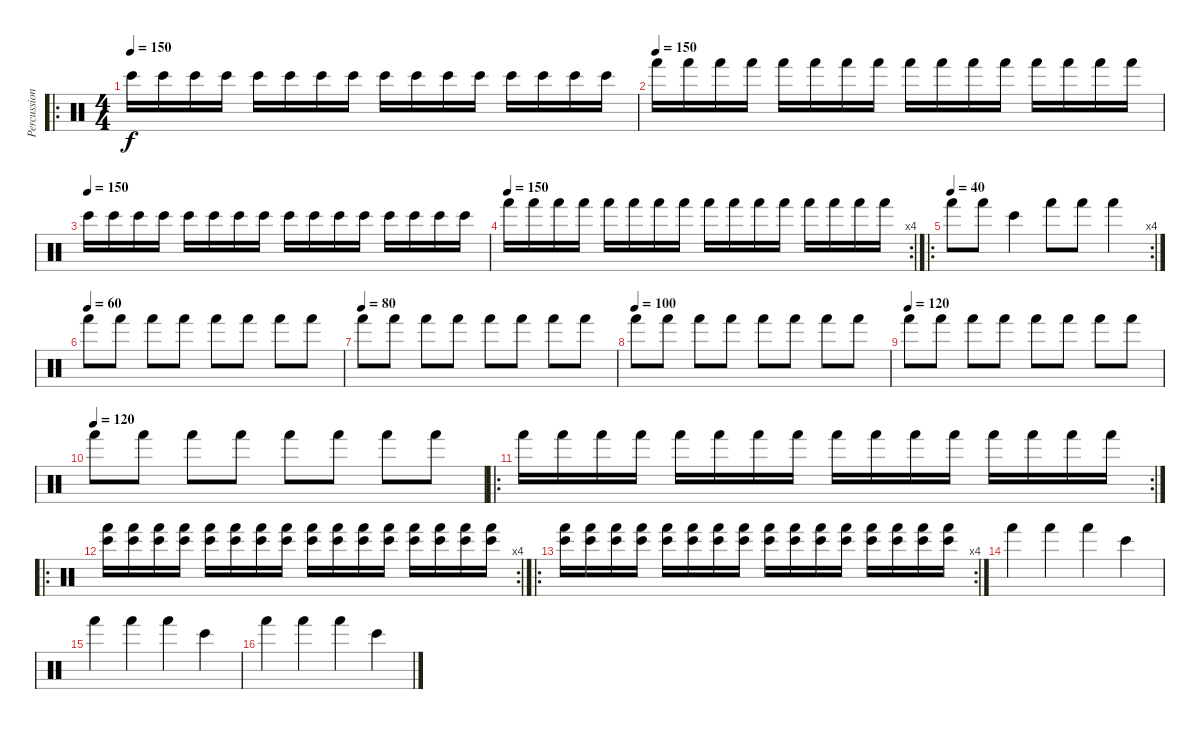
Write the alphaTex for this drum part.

\track ("Percussions" "Percussion") {instrument percussion}
\staff {score}
\articulation defaults
\ro
\ts (4 4)
\tempo 150
\clef neutral
\ks c "Bongo High (hit)".16{dy f} "Bongo High (hit)".16 "Bongo High (hit)".16 "Bongo High (hit)".16 "Bongo High (hit)".16 "Bongo High (hit)".16 "Bongo High (hit)".16 "Bongo High (hit)".16 "Bongo High (hit)".16 "Bongo High (hit)".16 "Bongo High (hit)".16 "Bongo High (hit)".16 "Bongo High (hit)".16 "Bongo High (hit)".16 "Bongo High (hit)".16 "Bongo High (hit)".16
|
\tempo (150)
"Hand (hit)".16 "Hand (hit)".16 "Hand (hit)".16 "Hand (hit)".16 "Hand (hit)".16 "Hand (hit)".16 "Hand (hit)".16 "Hand (hit)".16 "Hand (hit)".16 "Hand (hit)".16 "Hand (hit)".16 "Hand (hit)".16 "Hand (hit)".16 "Hand (hit)".16 "Hand (hit)".16 "Hand (hit)".16 |
\tempo (150)
"Bongo High (hit)".16 "Bongo High (hit)".16 "Bongo High (hit)".16 "Bongo High (hit)".16 "Bongo High (hit)".16 "Bongo High (hit)".16 "Bongo High (hit)".16 "Bongo High (hit)".16 "Bongo High (hit)".16 "Bongo High (hit)".16 "Bongo High (hit)".16 "Bongo High (hit)".16 "Bongo High (hit)".16 "Bongo High (hit)".16 "Bongo High (hit)".16 "Bongo High (hit)".16 |
\rc 4
\tempo (150)
"Hand (hit)".16 "Hand (hit)".16 "Hand (hit)".16 "Hand (hit)".16 "Hand (hit)".16 "Hand (hit)".16 "Hand (hit)".16 "Hand (hit)".16 "Hand (hit)".16 "Hand (hit)".16 "Hand (hit)".16 "Hand (hit)".16 "Hand (hit)".16 "Hand (hit)".16 "Hand (hit)".16 "Hand (hit)".16 |
\ro
\rc 4
\tempo (40)
"Hand (hit)".8 "Hand (hit)".8 "Bongo High (hit)".4 "Hand (hit)".8 "Hand (hit)".8 "Hand (hit)".4 |
\tempo (60)
"Hand (hit)".8 "Hand (hit)".8 "Hand (hit)".8 "Hand (hit)".8 "Hand (hit)".8 "Hand (hit)".8 "Hand (hit)".8 "Hand (hit)".8 |
\tempo (80)
"Hand (hit)".8 "Hand (hit)".8 "Hand (hit)".8 "Hand (hit)".8 "Hand (hit)".8 "Hand (hit)".8 "Hand (hit)".8 "Hand (hit)".8 |
\tempo (100)
"Hand (hit)".8 "Hand (hit)".8 "Hand (hit)".8 "Hand (hit)".8 "Hand (hit)".8 "Hand (hit)".8 "Hand (hit)".8 "Hand (hit)".8 |
\tempo (120)
"Hand (hit)".8 "Hand (hit)".8 "Hand (hit)".8 "Hand (hit)".8 "Hand (hit)".8 "Hand (hit)".8 "Hand (hit)".8 "Hand (hit)".8 |
\tempo (120)
"Hand (hit)".8 "Hand (hit)".8 "Hand (hit)".8 "Hand (hit)".8 "Hand (hit)".8 "Hand (hit)".8 "Hand (hit)".8 "Hand (hit)".8 |
\ro
\rc 2 "Hand (hit)".16 "Hand (hit)".16 "Hand (hit)".16 "Hand (hit)".16 "Hand (hit)".16 "Hand (hit)".16 "Hand (hit)".16 "Hand (hit)".16 "Hand (hit)".16 "Hand (hit)".16 "Hand (hit)".16 "Hand (hit)".16 "Hand (hit)".16 "Hand (hit)".16 "Hand (hit)".16 "Hand (hit)".16
|
\ro
\rc 4
("Hand (hit)" "Bongo High (hit)").16 ("Hand (hit)" "Bongo High (hit)").16 ("Hand (hit)" "Bongo High (hit)").16 ("Hand (hit)" "Bongo High (hit)").16 ("Hand (hit)" "Bongo High (hit)").16 ("Hand (hit)" "Bongo High (hit)").16 ("Hand (hit)" "Bongo High (hit)").16 ("Hand (hit)" "Bongo High (hit)").16 ("Hand (hit)" "Bongo High (hit)").16 ("Hand (hit)" "Bongo High (hit)").16 ("Hand (hit)" "Bongo High (hit)").16 ("Hand (hit)" "Bongo High (hit)").16 ("Hand (hit)" "Bongo High (hit)").16 ("Hand (hit)" "Bongo High (hit)").16 ("Hand (hit)" "Bongo High (hit)").16 ("Hand (hit)" "Bongo High (hit)").16 |
\ro
\rc 4
("Hand (hit)" "Bongo High (hit)").16 ("Hand (hit)" "Bongo High (hit)").16 ("Hand (hit)" "Bongo High (hit)").16 ("Hand (hit)" "Bongo High (hit)").16 ("Hand (hit)" "Bongo High (hit)").16 ("Hand (hit)" "Bongo High (hit)").16 ("Hand (hit)" "Bongo High (hit)").16 ("Hand (hit)" "Bongo High (hit)").16 ("Hand (hit)" "Bongo High (hit)").16 ("Hand (hit)" "Bongo High (hit)").16 ("Hand (hit)" "Bongo High (hit)").16 ("Hand (hit)" "Bongo High (hit)").16 ("Hand (hit)" "Bongo High (hit)").16 ("Hand (hit)" "Bongo High (hit)").16 ("Hand (hit)" "Bongo High (hit)").16 ("Hand (hit)" "Bongo High (hit)").16 |
"Hand (hit)".4 "Hand (hit)".4 "Hand (hit)".4 "Bongo High (hit)".4 |
"Hand (hit)".4 "Hand (hit)".4 "Hand (hit)".4 "Bongo High (hit)".4 |
"Hand (hit)".4 "Hand (hit)".4 "Hand (hit)".4 "Bongo High (hit)".4
